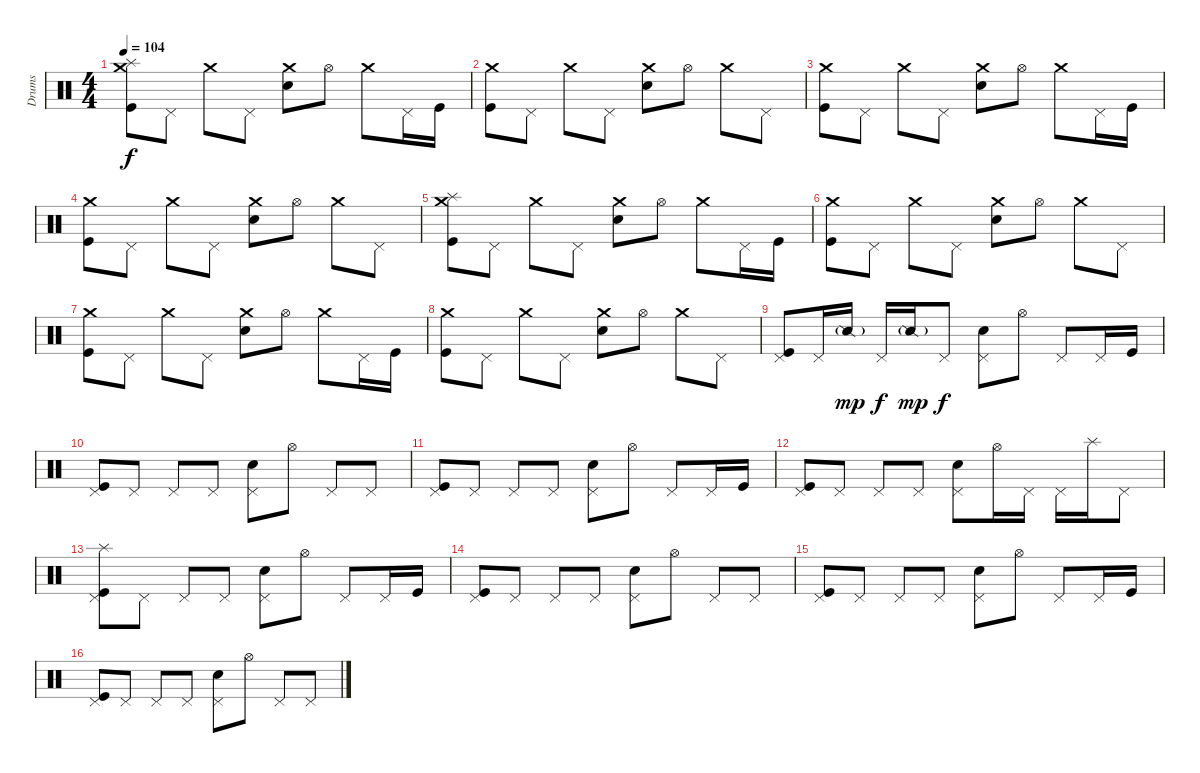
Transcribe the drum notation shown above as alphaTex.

\track ("Drums" "Drums") {instrument percussion}
\staff {score}
\articulation defaults
\ts (4 4)
\tempo 104
\clef neutral
\ks c
("Crash medium (hit)" "Splash (hit)" "Kick (hit)").8{dy f} "Pedal Hi-Hat (hit)".8 "Crash medium (hit)".8 "Pedal Hi-Hat (hit)".8 ("Crash medium (hit)" "Snare (hit) 2").8 "Hi-Hat (open)".8 "Crash medium (hit)".8 "Pedal Hi-Hat (hit)".16 "Kick (hit)".16 |
("Crash medium (hit)" "Kick (hit)").8 "Pedal Hi-Hat (hit)".8 "Crash medium (hit)".8 "Pedal Hi-Hat (hit)".8 ("Crash medium (hit)" "Snare (hit) 2").8 "Hi-Hat (open)".8 "Crash medium (hit)".8 "Pedal Hi-Hat (hit)".8 |
("Crash medium (hit)" "Kick (hit)").8 "Pedal Hi-Hat (hit)".8 "Crash medium (hit)".8 "Pedal Hi-Hat (hit)".8 ("Crash medium (hit)" "Snare (hit) 2").8 "Hi-Hat (open)".8 "Crash medium (hit)".8 "Pedal Hi-Hat (hit)".16 "Kick (hit)".16 |
("Crash medium (hit)" "Kick (hit)").8 "Pedal Hi-Hat (hit)".8 "Crash medium (hit)".8 "Pedal Hi-Hat (hit)".8 ("Crash medium (hit)" "Snare (hit) 2").8 "Hi-Hat (open)".8 "Crash medium (hit)".8 "Pedal Hi-Hat (hit)".8 |
("Crash medium (hit)" "Splash (hit)" "Kick (hit)").8 "Pedal Hi-Hat (hit)".8 "Crash medium (hit)".8 "Pedal Hi-Hat (hit)".8 ("Crash medium (hit)" "Snare (hit) 2").8 "Hi-Hat (open)".8 "Crash medium (hit)".8 "Pedal Hi-Hat (hit)".16 "Kick (hit)".16 |
("Crash medium (hit)" "Kick (hit)").8 "Pedal Hi-Hat (hit)".8 "Crash medium (hit)".8 "Pedal Hi-Hat (hit)".8 ("Crash medium (hit)" "Snare (hit) 2").8 "Hi-Hat (open)".8 "Crash medium (hit)".8 "Pedal Hi-Hat (hit)".8 |
("Crash medium (hit)" "Kick (hit)").8 "Pedal Hi-Hat (hit)".8 "Crash medium (hit)".8 "Pedal Hi-Hat (hit)".8 ("Crash medium (hit)" "Snare (hit) 2").8 "Hi-Hat (open)".8 "Crash medium (hit)".8 "Pedal Hi-Hat (hit)".16 "Kick (hit)".16 |
("Crash medium (hit)" "Kick (hit)").8 "Pedal Hi-Hat (hit)".8 "Crash medium (hit)".8 "Pedal Hi-Hat (hit)".8 ("Crash medium (hit)" "Snare (hit) 2").8 "Hi-Hat (open)".8 "Crash medium (hit)".8 "Pedal Hi-Hat (hit)".8 |
("Pedal Hi-Hat (hit)" "Kick (hit)").8 "Pedal Hi-Hat (hit)".16 "Snare (side stick) 2"{g}.16{dy mp} "Pedal Hi-Hat (hit)".16{dy f} "Snare (side stick) 2"{g}.16{dy mp} "Pedal Hi-Hat (hit)".8{dy f} ("Pedal Hi-Hat (hit)" "Snare (hit) 2").8 "Hi-Hat (open)".8 "Pedal Hi-Hat (hit)".8 "Pedal Hi-Hat (hit)".16 "Kick (hit)".16 |
("Pedal Hi-Hat (hit)" "Kick (hit)").8 "Pedal Hi-Hat (hit)".8 "Pedal Hi-Hat (hit)".8 "Pedal Hi-Hat (hit)".8 ("Pedal Hi-Hat (hit)" "Snare (hit) 2").8 "Hi-Hat (open)".8 "Pedal Hi-Hat (hit)".8 "Pedal Hi-Hat (hit)".8 |
("Pedal Hi-Hat (hit)" "Kick (hit)").8 "Pedal Hi-Hat (hit)".8 "Pedal Hi-Hat (hit)".8 "Pedal Hi-Hat (hit)".8 ("Pedal Hi-Hat (hit)" "Snare (hit) 2").8 "Hi-Hat (open)".8 "Pedal Hi-Hat (hit)".8 "Pedal Hi-Hat (hit)".16 "Kick (hit)".16 |
("Pedal Hi-Hat (hit)" "Kick (hit)").8 "Pedal Hi-Hat (hit)".8 "Pedal Hi-Hat (hit)".8 "Pedal Hi-Hat (hit)".8 ("Pedal Hi-Hat (hit)" "Snare (hit) 2").8 "Hi-Hat (open)".16 "Pedal Hi-Hat (hit)".16 "Pedal Hi-Hat (hit)".16 "Splash (hit)".16 "Pedal Hi-Hat (hit)".8 |
("Pedal Hi-Hat (hit)" "Splash (hit)" "Kick (hit)").8 "Pedal Hi-Hat (hit)".8 "Pedal Hi-Hat (hit)".8 "Pedal Hi-Hat (hit)".8 ("Pedal Hi-Hat (hit)" "Snare (hit) 2").8 "Hi-Hat (open)".8 "Pedal Hi-Hat (hit)".8 "Pedal Hi-Hat (hit)".16 "Kick (hit)".16 |
("Pedal Hi-Hat (hit)" "Kick (hit)").8 "Pedal Hi-Hat (hit)".8 "Pedal Hi-Hat (hit)".8 "Pedal Hi-Hat (hit)".8 ("Pedal Hi-Hat (hit)" "Snare (hit) 2").8 "Hi-Hat (open)".8 "Pedal Hi-Hat (hit)".8 "Pedal Hi-Hat (hit)".8 |
("Pedal Hi-Hat (hit)" "Kick (hit)").8 "Pedal Hi-Hat (hit)".8 "Pedal Hi-Hat (hit)".8 "Pedal Hi-Hat (hit)".8 ("Pedal Hi-Hat (hit)" "Snare (hit) 2").8 "Hi-Hat (open)".8 "Pedal Hi-Hat (hit)".8 "Pedal Hi-Hat (hit)".16 "Kick (hit)".16 |
("Pedal Hi-Hat (hit)" "Kick (hit)").8 "Pedal Hi-Hat (hit)".8 "Pedal Hi-Hat (hit)".8 "Pedal Hi-Hat (hit)".8 ("Pedal Hi-Hat (hit)" "Snare (hit) 2").8 "Hi-Hat (open)".8 "Pedal Hi-Hat (hit)".8 "Pedal Hi-Hat (hit)".8
